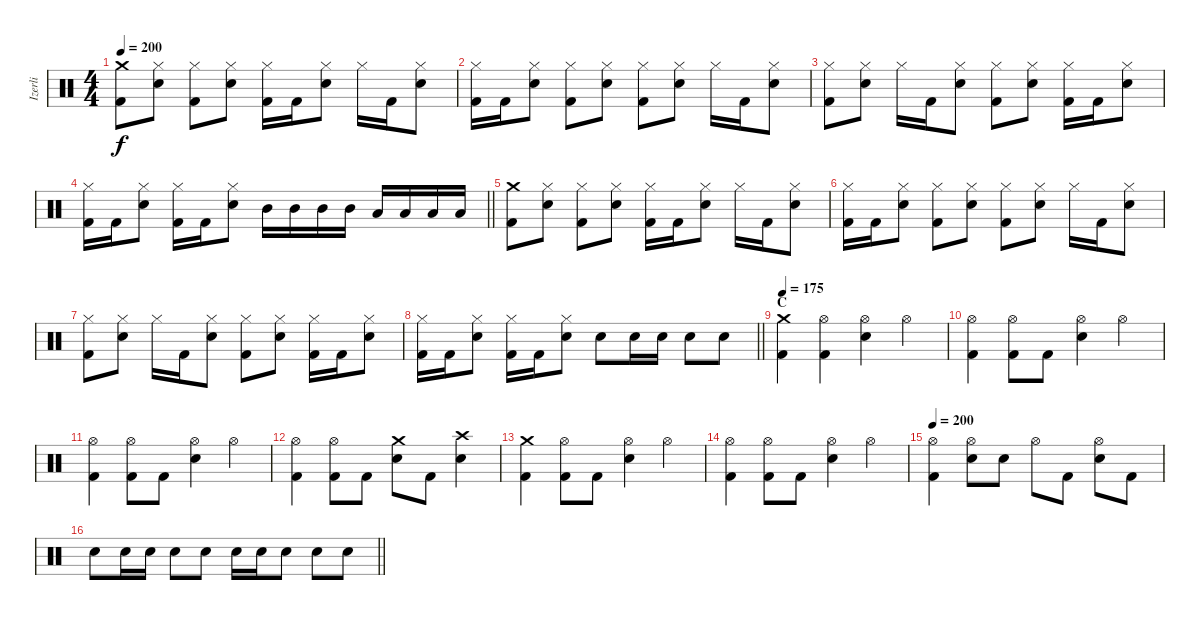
\track ("Izerli" "Izerli") {instrument percussion}
\staff {score}
\articulation defaults
\ts (4 4)
\tempo 200
\clef neutral
\ks c
("Crash medium (hit)" "Kick (hit) 2").8{dy f} ("Hi-Hat (closed)" "Electric Snare (hit)").8 ("Hi-Hat (closed)" "Kick (hit) 2").8 ("Hi-Hat (closed)" "Electric Snare (hit)").8 ("Hi-Hat (closed)" "Kick (hit) 2").16 "Kick (hit) 2".16 ("Hi-Hat (closed)" "Electric Snare (hit)").8 "Hi-Hat (closed)".16 "Kick (hit) 2".16 ("Hi-Hat (closed)" "Electric Snare (hit)").8 |
("Hi-Hat (closed)" "Kick (hit) 2").16 "Kick (hit) 2".16 ("Hi-Hat (closed)" "Electric Snare (hit)").8 ("Hi-Hat (closed)" "Kick (hit) 2").8 ("Hi-Hat (closed)" "Electric Snare (hit)").8 ("Hi-Hat (closed)" "Kick (hit) 2").8 ("Hi-Hat (closed)" "Electric Snare (hit)").8 "Hi-Hat (closed)".16 "Kick (hit) 2".16 ("Hi-Hat (closed)" "Electric Snare (hit)").8 |
("Hi-Hat (closed)" "Kick (hit) 2").8 ("Hi-Hat (closed)" "Electric Snare (hit)").8 "Hi-Hat (closed)".16 "Kick (hit) 2".16 ("Hi-Hat (closed)" "Electric Snare (hit)").8 ("Hi-Hat (closed)" "Kick (hit) 2").8 ("Hi-Hat (closed)" "Electric Snare (hit)").8 ("Hi-Hat (closed)" "Kick (hit) 2").16 "Kick (hit) 2".16 ("Hi-Hat (closed)" "Electric Snare (hit)").8 |
\barLineRight lightlight
("Hi-Hat (closed)" "Kick (hit) 2").16 "Kick (hit) 2".16 ("Hi-Hat (closed)" "Electric Snare (hit)").8 ("Hi-Hat (closed)" "Kick (hit) 2").16 "Kick (hit) 2".16 ("Hi-Hat (closed)" "Electric Snare (hit)").8 "Mid Tom (hit)".16 "Mid Tom (hit)".16 "Mid Tom (hit)".16 "Mid Tom (hit)".16 "Low Tom (hit)".16 "Low Tom (hit)".16 "Low Tom (hit)".16 "Low Tom (hit)".16 |
("Crash medium (hit)" "Kick (hit) 2").8 ("Hi-Hat (closed)" "Electric Snare (hit)").8 ("Hi-Hat (closed)" "Kick (hit) 2").8 ("Hi-Hat (closed)" "Electric Snare (hit)").8 ("Hi-Hat (closed)" "Kick (hit) 2").16 "Kick (hit) 2".16 ("Hi-Hat (closed)" "Electric Snare (hit)").8 "Hi-Hat (closed)".16 "Kick (hit) 2".16 ("Hi-Hat (closed)" "Electric Snare (hit)").8 |
("Hi-Hat (closed)" "Kick (hit) 2").16 "Kick (hit) 2".16 ("Hi-Hat (closed)" "Electric Snare (hit)").8 ("Hi-Hat (closed)" "Kick (hit) 2").8 ("Hi-Hat (closed)" "Electric Snare (hit)").8 ("Hi-Hat (closed)" "Kick (hit) 2").8 ("Hi-Hat (closed)" "Electric Snare (hit)").8 "Hi-Hat (closed)".16 "Kick (hit) 2".16 ("Hi-Hat (closed)" "Electric Snare (hit)").8 |
("Hi-Hat (closed)" "Kick (hit) 2").8 ("Hi-Hat (closed)" "Electric Snare (hit)").8 "Hi-Hat (closed)".16 "Kick (hit) 2".16 ("Hi-Hat (closed)" "Electric Snare (hit)").8 ("Hi-Hat (closed)" "Kick (hit) 2").8 ("Hi-Hat (closed)" "Electric Snare (hit)").8 ("Hi-Hat (closed)" "Kick (hit) 2").16 "Kick (hit) 2".16 ("Hi-Hat (closed)" "Electric Snare (hit)").8 |
\barLineRight lightlight
("Hi-Hat (closed)" "Kick (hit) 2").16 "Kick (hit) 2".16 ("Hi-Hat (closed)" "Electric Snare (hit)").8 ("Hi-Hat (closed)" "Kick (hit) 2").16 "Kick (hit) 2".16 ("Hi-Hat (closed)" "Electric Snare (hit)").8 "Electric Snare (hit)".8 "Electric Snare (hit)".16 "Electric Snare (hit)".16 "Electric Snare (hit)".8 "Electric Snare (hit)".8 |
\section ("" "C")
\tempo 175
("Crash medium (hit)" "Kick (hit) 2").4 ("Hi-Hat (open)" "Kick (hit) 2").4 ("Hi-Hat (open)" "Electric Snare (hit)").4 "Hi-Hat (open)".4 |
("Hi-Hat (open)" "Kick (hit) 2").4 ("Hi-Hat (open)" "Kick (hit) 2").8 "Kick (hit) 2".8 ("Hi-Hat (open)" "Electric Snare (hit)").4 "Hi-Hat (open)".4 |
("Hi-Hat (open)" "Kick (hit) 2").4 ("Hi-Hat (open)" "Kick (hit) 2").8 "Kick (hit) 2".8 ("Hi-Hat (open)" "Electric Snare (hit)").4 "Hi-Hat (open)".4 |
("Hi-Hat (open)" "Kick (hit) 2").4 ("Hi-Hat (open)" "Kick (hit) 2").8 "Kick (hit) 2".8 ("Crash medium (hit)" "Electric Snare (hit)").8 "Kick (hit) 2".8 ("Crash high (hit)" "Electric Snare (hit)").4 |
("Crash medium (hit)" "Kick (hit) 2").4 ("Hi-Hat (open)" "Kick (hit) 2").8 "Kick (hit) 2".8 ("Hi-Hat (open)" "Electric Snare (hit)").4 "Hi-Hat (open)".4 |
("Hi-Hat (open)" "Kick (hit) 2").4 ("Hi-Hat (open)" "Kick (hit) 2").8 "Kick (hit) 2".8 ("Hi-Hat (open)" "Electric Snare (hit)").4 "Hi-Hat (open)".4 |
\tempo 200
("Hi-Hat (open)" "Kick (hit) 2").4 ("Hi-Hat (open)" "Electric Snare (hit)").8 "Electric Snare (hit)".8 "Hi-Hat (open)".8 "Kick (hit) 2".8 ("Hi-Hat (open)" "Electric Snare (hit)").8 "Kick (hit) 2".8 |
\barLineRight lightlight "Electric Snare (hit)".8 "Electric Snare (hit)".16 "Electric Snare (hit)".16 "Electric Snare (hit)".8 "Electric Snare (hit)".8 "Electric Snare (hit)".16 "Electric Snare (hit)".16 "Electric Snare (hit)".8 "Electric Snare (hit)".8 "Electric Snare (hit)".8
